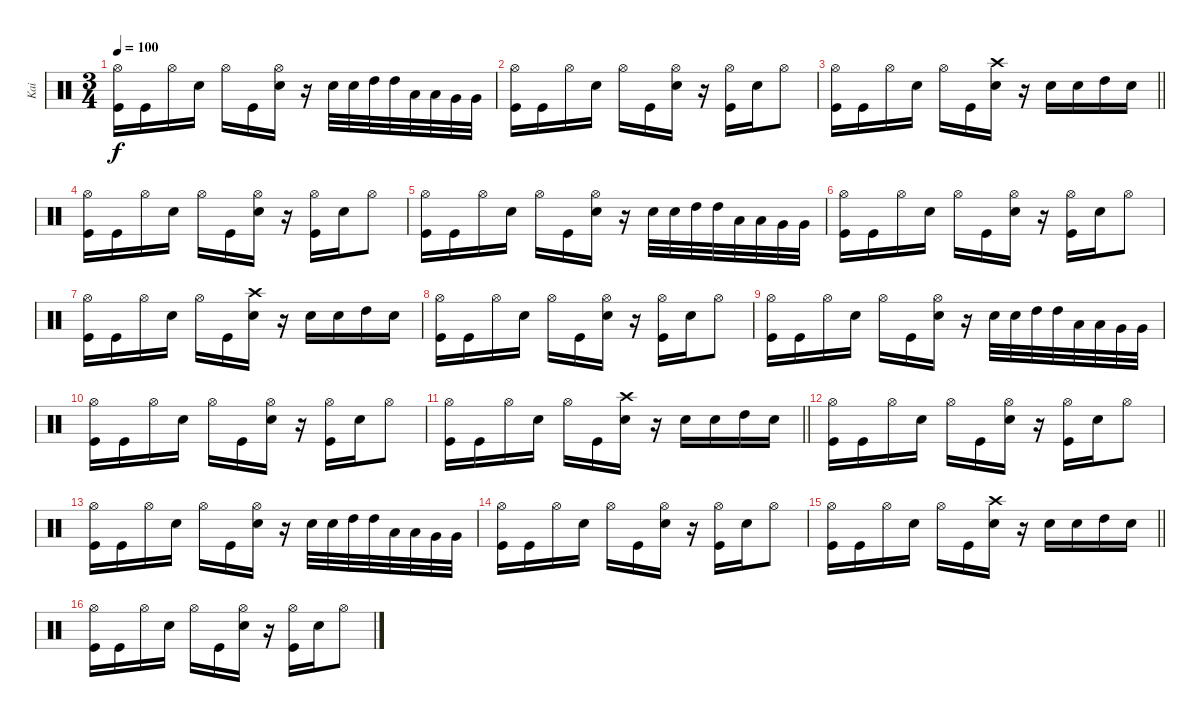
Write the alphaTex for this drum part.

\track ("Kai" "Kai") {instrument percussion}
\staff {score}
\articulation defaults
\ts (3 4)
\tempo 100
\clef neutral
\ks c
("Hi-Hat (open)" "Kick (hit)").16{dy f} "Kick (hit)".16 "Hi-Hat (open)".16 "Snare (hit) 2".16 "Hi-Hat (open)".16 "Kick (hit)".16 ("Hi-Hat (open)" "Snare (hit) 2").16 r.16 "Snare (hit) 2".32 "Snare (hit) 2".32 "High Tom (hit)".32 "High Tom (hit)".32 "Low Tom (hit)".32 "Low Tom (hit)".32 "Very Low Tom (hit)".32 "Very Low Tom (hit)".32 |
("Hi-Hat (open)" "Kick (hit)").16 "Kick (hit)".16 "Hi-Hat (open)".16 "Snare (hit) 2".16 "Hi-Hat (open)".16 "Kick (hit)".16 ("Hi-Hat (open)" "Snare (hit) 2").16 r.16 ("Hi-Hat (open)" "Kick (hit)").16 "Snare (hit) 2".16 "Hi-Hat (open)".8 |
\barLineRight lightlight
("Hi-Hat (open)" "Kick (hit)").16 "Kick (hit)".16 "Hi-Hat (open)".16 "Snare (hit) 2".16 "Hi-Hat (open)".16 "Kick (hit)".16 ("Crash high (hit)" "Snare (hit) 2").16 r.16 "Snare (hit) 2".16 "Snare (hit) 2".16 "High Tom (hit)".16 "Snare (hit) 2".16 |
("Hi-Hat (open)" "Kick (hit)").16 "Kick (hit)".16 "Hi-Hat (open)".16 "Snare (hit) 2".16 "Hi-Hat (open)".16 "Kick (hit)".16 ("Hi-Hat (open)" "Snare (hit) 2").16 r.16 ("Hi-Hat (open)" "Kick (hit)").16 "Snare (hit) 2".16 "Hi-Hat (open)".8 |
("Hi-Hat (open)" "Kick (hit)").16 "Kick (hit)".16 "Hi-Hat (open)".16 "Snare (hit) 2".16 "Hi-Hat (open)".16 "Kick (hit)".16 ("Hi-Hat (open)" "Snare (hit) 2").16 r.16 "Snare (hit) 2".32 "Snare (hit) 2".32 "High Tom (hit)".32 "High Tom (hit)".32 "Low Tom (hit)".32 "Low Tom (hit)".32 "Very Low Tom (hit)".32 "Very Low Tom (hit)".32 |
("Hi-Hat (open)" "Kick (hit)").16 "Kick (hit)".16 "Hi-Hat (open)".16 "Snare (hit) 2".16 "Hi-Hat (open)".16 "Kick (hit)".16 ("Hi-Hat (open)" "Snare (hit) 2").16 r.16 ("Hi-Hat (open)" "Kick (hit)").16 "Snare (hit) 2".16 "Hi-Hat (open)".8 |
("Hi-Hat (open)" "Kick (hit)").16 "Kick (hit)".16 "Hi-Hat (open)".16 "Snare (hit) 2".16 "Hi-Hat (open)".16 "Kick (hit)".16 ("Crash high (hit)" "Snare (hit) 2").16 r.16 "Snare (hit) 2".16 "Snare (hit) 2".16 "High Tom (hit)".16 "Snare (hit) 2".16 |
("Hi-Hat (open)" "Kick (hit)").16 "Kick (hit)".16 "Hi-Hat (open)".16 "Snare (hit) 2".16 "Hi-Hat (open)".16 "Kick (hit)".16 ("Hi-Hat (open)" "Snare (hit) 2").16 r.16 ("Hi-Hat (open)" "Kick (hit)").16 "Snare (hit) 2".16 "Hi-Hat (open)".8 |
("Hi-Hat (open)" "Kick (hit)").16 "Kick (hit)".16 "Hi-Hat (open)".16 "Snare (hit) 2".16 "Hi-Hat (open)".16 "Kick (hit)".16 ("Hi-Hat (open)" "Snare (hit) 2").16 r.16 "Snare (hit) 2".32 "Snare (hit) 2".32 "High Tom (hit)".32 "High Tom (hit)".32 "Low Tom (hit)".32 "Low Tom (hit)".32 "Very Low Tom (hit)".32 "Very Low Tom (hit)".32 |
("Hi-Hat (open)" "Kick (hit)").16 "Kick (hit)".16 "Hi-Hat (open)".16 "Snare (hit) 2".16 "Hi-Hat (open)".16 "Kick (hit)".16 ("Hi-Hat (open)" "Snare (hit) 2").16 r.16 ("Hi-Hat (open)" "Kick (hit)").16 "Snare (hit) 2".16 "Hi-Hat (open)".8 |
\barLineRight lightlight
("Hi-Hat (open)" "Kick (hit)").16 "Kick (hit)".16 "Hi-Hat (open)".16 "Snare (hit) 2".16 "Hi-Hat (open)".16 "Kick (hit)".16 ("Crash high (hit)" "Snare (hit) 2").16 r.16 "Snare (hit) 2".16 "Snare (hit) 2".16 "High Tom (hit)".16 "Snare (hit) 2".16 |
("Hi-Hat (open)" "Kick (hit)").16 "Kick (hit)".16 "Hi-Hat (open)".16 "Snare (hit) 2".16 "Hi-Hat (open)".16 "Kick (hit)".16 ("Hi-Hat (open)" "Snare (hit) 2").16 r.16 ("Hi-Hat (open)" "Kick (hit)").16 "Snare (hit) 2".16 "Hi-Hat (open)".8 |
("Hi-Hat (open)" "Kick (hit)").16 "Kick (hit)".16 "Hi-Hat (open)".16 "Snare (hit) 2".16 "Hi-Hat (open)".16 "Kick (hit)".16 ("Hi-Hat (open)" "Snare (hit) 2").16 r.16 "Snare (hit) 2".32 "Snare (hit) 2".32 "High Tom (hit)".32 "High Tom (hit)".32 "Low Tom (hit)".32 "Low Tom (hit)".32 "Very Low Tom (hit)".32 "Very Low Tom (hit)".32 |
("Hi-Hat (open)" "Kick (hit)").16 "Kick (hit)".16 "Hi-Hat (open)".16 "Snare (hit) 2".16 "Hi-Hat (open)".16 "Kick (hit)".16 ("Hi-Hat (open)" "Snare (hit) 2").16 r.16 ("Hi-Hat (open)" "Kick (hit)").16 "Snare (hit) 2".16 "Hi-Hat (open)".8 |
\barLineRight lightlight
("Hi-Hat (open)" "Kick (hit)").16 "Kick (hit)".16 "Hi-Hat (open)".16 "Snare (hit) 2".16 "Hi-Hat (open)".16 "Kick (hit)".16 ("Crash high (hit)" "Snare (hit) 2").16 r.16 "Snare (hit) 2".16 "Snare (hit) 2".16 "High Tom (hit)".16 "Snare (hit) 2".16 |
("Hi-Hat (open)" "Kick (hit)").16 "Kick (hit)".16 "Hi-Hat (open)".16 "Snare (hit) 2".16 "Hi-Hat (open)".16 "Kick (hit)".16 ("Hi-Hat (open)" "Snare (hit) 2").16 r.16 ("Hi-Hat (open)" "Kick (hit)").16 "Snare (hit) 2".16 "Hi-Hat (open)".8
